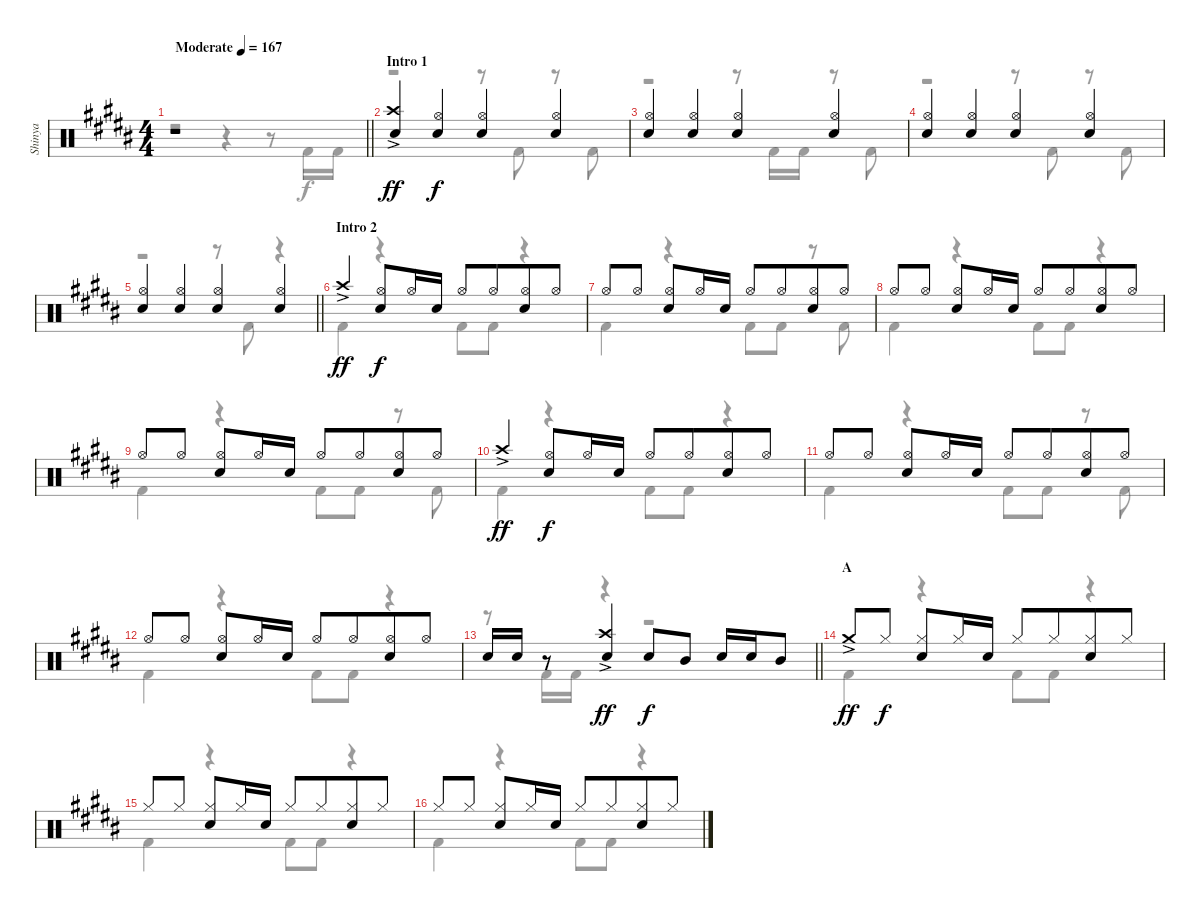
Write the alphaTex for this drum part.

\track ("Shinya" "Shinya") {instrument percussion}
\staff {score}
\articulation defaults
\voice
\ts (4 4)
\tempo (167 "Moderate")
\clef neutral
\barLineRight lightlight
\ks g#minor
r.1{dy ff} |
\section ("" "Intro 1")
("Crash high (hit)"{ac} "Snare (hit) 2").4 ("Hi-Hat (open)" "Snare (hit) 2").4{dy f} ("Hi-Hat (open)" "Snare (hit) 2").4 ("Hi-Hat (open)" "Snare (hit) 2").4 |
("Hi-Hat (open)" "Snare (hit) 2").4 ("Hi-Hat (open)" "Snare (hit) 2").4 ("Hi-Hat (open)" "Snare (hit) 2").4 ("Hi-Hat (open)" "Snare (hit) 2").4 |
("Hi-Hat (open)" "Snare (hit) 2").4 ("Hi-Hat (open)" "Snare (hit) 2").4 ("Hi-Hat (open)" "Snare (hit) 2").4 ("Hi-Hat (open)" "Snare (hit) 2").4 |
\barLineRight lightlight
("Hi-Hat (open)" "Snare (hit) 2").4 ("Hi-Hat (open)" "Snare (hit) 2").4 ("Hi-Hat (open)" "Snare (hit) 2").4 ("Hi-Hat (open)" "Snare (hit) 2").4 |
\section ("" "Intro 2")
"Crash high (hit)"{ac}.4{dy ff} ("Hi-Hat (open)" "Snare (hit) 2").8{dy f} "Hi-Hat (open)".16 "Snare (hit) 2".16 "Hi-Hat (open)".8 "Hi-Hat (open)".8{beam merge} ("Hi-Hat (open)" "Snare (hit) 2").8 "Hi-Hat (open)".8 |
"Hi-Hat (open)".8 "Hi-Hat (open)".8 ("Hi-Hat (open)" "Snare (hit) 2").8 "Hi-Hat (open)".16 "Snare (hit) 2".16 "Hi-Hat (open)".8 "Hi-Hat (open)".8{beam merge} ("Hi-Hat (open)" "Snare (hit) 2").8 "Hi-Hat (open)".8 |
"Hi-Hat (open)".8 "Hi-Hat (open)".8 ("Hi-Hat (open)" "Snare (hit) 2").8 "Hi-Hat (open)".16 "Snare (hit) 2".16 "Hi-Hat (open)".8 "Hi-Hat (open)".8{beam merge} ("Hi-Hat (open)" "Snare (hit) 2").8 "Hi-Hat (open)".8 |
"Hi-Hat (open)".8 "Hi-Hat (open)".8 ("Hi-Hat (open)" "Snare (hit) 2").8 "Hi-Hat (open)".16 "Snare (hit) 2".16 "Hi-Hat (open)".8 "Hi-Hat (open)".8{beam merge} ("Hi-Hat (open)" "Snare (hit) 2").8 "Hi-Hat (open)".8 |
"Crash high (hit)"{ac}.4{dy ff} ("Hi-Hat (open)" "Snare (hit) 2").8{dy f} "Hi-Hat (open)".16 "Snare (hit) 2".16 "Hi-Hat (open)".8 "Hi-Hat (open)".8{beam merge} ("Hi-Hat (open)" "Snare (hit) 2").8 "Hi-Hat (open)".8 |
"Hi-Hat (open)".8 "Hi-Hat (open)".8 ("Hi-Hat (open)" "Snare (hit) 2").8 "Hi-Hat (open)".16 "Snare (hit) 2".16 "Hi-Hat (open)".8 "Hi-Hat (open)".8{beam merge} ("Hi-Hat (open)" "Snare (hit) 2").8 "Hi-Hat (open)".8 |
"Hi-Hat (open)".8 "Hi-Hat (open)".8 ("Hi-Hat (open)" "Snare (hit) 2").8 "Hi-Hat (open)".16 "Snare (hit) 2".16 "Hi-Hat (open)".8 "Hi-Hat (open)".8{beam merge} ("Hi-Hat (open)" "Snare (hit) 2").8 "Hi-Hat (open)".8 |
\barLineRight lightlight "Snare (hit) 2".16 "Snare (hit) 2".16
r.8 ("Crash high (hit)"{ac} "Snare (hit) 2").4{dy ff} "Snare (hit) 2".8{dy f} "Mid Tom (hit)".8 "Snare (hit) 2".16 "Snare (hit) 2".16 "Mid Tom (hit)".8 |
\section ("" "A")
"Crash medium (hit)"{ac}.8{dy ff} "Hi-Hat (closed)".8{dy f} ("Hi-Hat (closed)" "Snare (hit) 2").8 "Hi-Hat (closed)".16 "Snare (hit) 2".16 "Hi-Hat (closed)".8 "Hi-Hat (closed)".8{beam merge} ("Hi-Hat (closed)" "Snare (hit) 2").8 "Hi-Hat (closed)".8 |
"Hi-Hat (closed)".8 "Hi-Hat (closed)".8 ("Hi-Hat (closed)" "Snare (hit) 2").8 "Hi-Hat (closed)".16 "Snare (hit) 2".16 "Hi-Hat (closed)".8 "Hi-Hat (closed)".8{beam merge} ("Hi-Hat (closed)" "Snare (hit) 2").8 "Hi-Hat (closed)".8 |
"Hi-Hat (closed)".8 "Hi-Hat (closed)".8 ("Hi-Hat (closed)" "Snare (hit) 2").8 "Hi-Hat (closed)".16 "Snare (hit) 2".16 "Hi-Hat (closed)".8 "Hi-Hat (closed)".8{beam merge} ("Hi-Hat (closed)" "Snare (hit) 2").8 "Hi-Hat (closed)".8
\voice
\clef neutral
\ottava regular
\simile none
\barLineRight lightlight
\ks g#minor
r.2{dy f} r.4 r.8 "Kick (hit) 2".16 "Kick (hit) 2".16 |
r.2 r.8 "Kick (hit) 2".8 r.8 "Kick (hit) 2".8 |
r.2 r.8 "Kick (hit) 2".16 "Kick (hit) 2".16 r.8 "Kick (hit) 2".8 |
r.2 r.8 "Kick (hit) 2".8 r.8 "Kick (hit) 2".8 |
\barLineRight lightlight
r.2 r.8 "Kick (hit) 2".8 r.4 |
"Kick (hit) 2".4 r.4 "Kick (hit) 2".8 "Kick (hit) 2".8 r.4 |
"Kick (hit) 2".4 r.4 "Kick (hit) 2".8 "Kick (hit) 2".8 r.8 "Kick (hit) 2".8 |
"Kick (hit) 2".4 r.4 "Kick (hit) 2".8 "Kick (hit) 2".8 r.4 |
"Kick (hit) 2".4 r.4 "Kick (hit) 2".8 "Kick (hit) 2".8 r.8 "Kick (hit) 2".8 |
"Kick (hit) 2".4 r.4 "Kick (hit) 2".8 "Kick (hit) 2".8 r.4 |
"Kick (hit) 2".4 r.4 "Kick (hit) 2".8 "Kick (hit) 2".8 r.8 "Kick (hit) 2".8 |
"Kick (hit) 2".4 r.4 "Kick (hit) 2".8 "Kick (hit) 2".8 r.4 |
\barLineRight lightlight
r.8 "Kick (hit) 2".16 "Kick (hit) 2".16 r.4 r.2 |
"Kick (hit) 2".4 r.4 "Kick (hit) 2".8 "Kick (hit) 2".8 r.4 |
"Kick (hit) 2".4 r.4 "Kick (hit) 2".8 "Kick (hit) 2".8 r.4 |
"Kick (hit) 2".4 r.4 "Kick (hit) 2".8 "Kick (hit) 2".8 r.4
